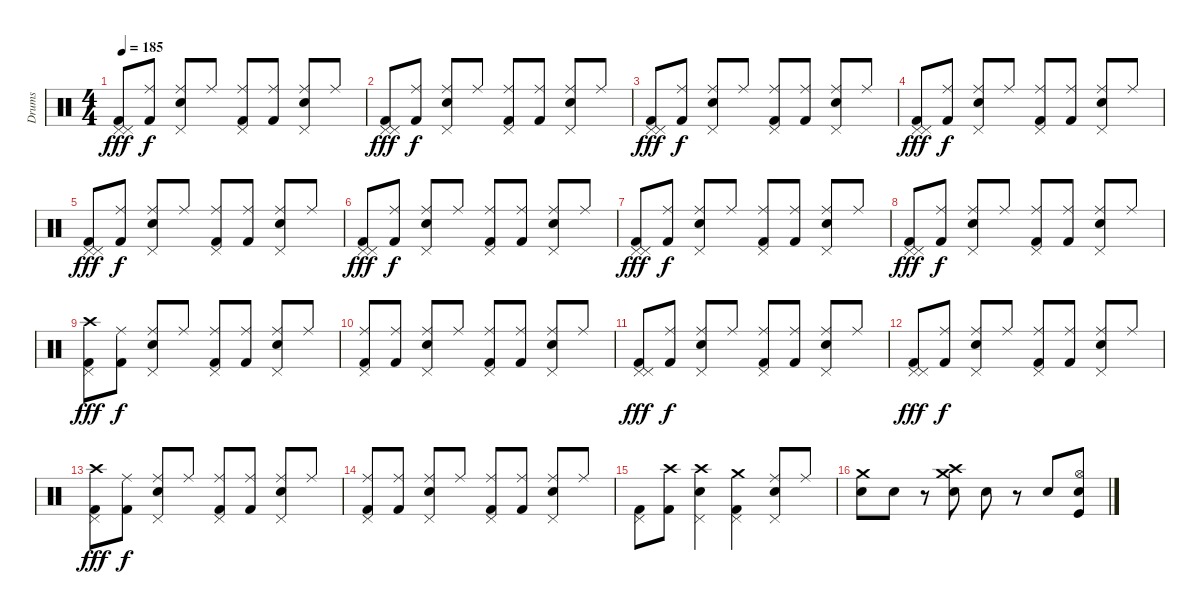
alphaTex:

\track ("Drums" "Drums") {instrument percussion}
\staff {score}
\articulation defaults
\ts (4 4)
\tempo 185
\clef neutral
\ks c
("Pedal Hi-Hat (hit)" "Pedal Hi-Hat (hit)" "Kick (hit) 2").8{dy fff} ("Ride (middle)" "Kick (hit) 2").8{dy f} ("Pedal Hi-Hat (hit)" "Ride (middle)" "Snare (hit) 2").8 "Ride (middle)".8 ("Pedal Hi-Hat (hit)" "Ride (middle)" "Kick (hit) 2").8 ("Ride (middle)" "Kick (hit) 2").8 ("Pedal Hi-Hat (hit)" "Ride (middle)" "Snare (hit) 2").8 "Ride (middle)".8 |
("Pedal Hi-Hat (hit)" "Pedal Hi-Hat (hit)" "Kick (hit) 2").8{dy fff} ("Ride (middle)" "Kick (hit) 2").8{dy f} ("Pedal Hi-Hat (hit)" "Ride (middle)" "Snare (hit) 2").8 "Ride (middle)".8 ("Pedal Hi-Hat (hit)" "Ride (middle)" "Kick (hit) 2").8 ("Ride (middle)" "Kick (hit) 2").8 ("Pedal Hi-Hat (hit)" "Ride (middle)" "Snare (hit) 2").8 "Ride (middle)".8 |
("Pedal Hi-Hat (hit)" "Pedal Hi-Hat (hit)" "Kick (hit) 2").8{dy fff} ("Ride (middle)" "Kick (hit) 2").8{dy f} ("Pedal Hi-Hat (hit)" "Ride (middle)" "Snare (hit) 2").8 "Ride (middle)".8 ("Pedal Hi-Hat (hit)" "Ride (middle)" "Kick (hit) 2").8 ("Ride (middle)" "Kick (hit) 2").8 ("Pedal Hi-Hat (hit)" "Ride (middle)" "Snare (hit) 2").8 "Ride (middle)".8 |
("Pedal Hi-Hat (hit)" "Pedal Hi-Hat (hit)" "Kick (hit) 2").8{dy fff} ("Ride (middle)" "Kick (hit) 2").8{dy f} ("Pedal Hi-Hat (hit)" "Ride (middle)" "Snare (hit) 2").8 "Ride (middle)".8 ("Pedal Hi-Hat (hit)" "Ride (middle)" "Kick (hit) 2").8 ("Ride (middle)" "Kick (hit) 2").8 ("Pedal Hi-Hat (hit)" "Ride (middle)" "Snare (hit) 2").8 "Ride (middle)".8 |
("Pedal Hi-Hat (hit)" "Pedal Hi-Hat (hit)" "Kick (hit) 2").8{dy fff} ("Ride (middle)" "Kick (hit) 2").8{dy f} ("Pedal Hi-Hat (hit)" "Ride (middle)" "Snare (hit) 2").8 "Ride (middle)".8 ("Pedal Hi-Hat (hit)" "Ride (middle)" "Kick (hit) 2").8 ("Ride (middle)" "Kick (hit) 2").8 ("Pedal Hi-Hat (hit)" "Ride (middle)" "Snare (hit) 2").8 "Ride (middle)".8 |
("Pedal Hi-Hat (hit)" "Pedal Hi-Hat (hit)" "Kick (hit) 2").8{dy fff} ("Ride (middle)" "Kick (hit) 2").8{dy f} ("Pedal Hi-Hat (hit)" "Ride (middle)" "Snare (hit) 2").8 "Ride (middle)".8 ("Pedal Hi-Hat (hit)" "Ride (middle)" "Kick (hit) 2").8 ("Ride (middle)" "Kick (hit) 2").8 ("Pedal Hi-Hat (hit)" "Ride (middle)" "Snare (hit) 2").8 "Ride (middle)".8 |
("Pedal Hi-Hat (hit)" "Pedal Hi-Hat (hit)" "Kick (hit) 2").8{dy fff} ("Ride (middle)" "Kick (hit) 2").8{dy f} ("Pedal Hi-Hat (hit)" "Ride (middle)" "Snare (hit) 2").8 "Ride (middle)".8 ("Pedal Hi-Hat (hit)" "Ride (middle)" "Kick (hit) 2").8 ("Ride (middle)" "Kick (hit) 2").8 ("Pedal Hi-Hat (hit)" "Ride (middle)" "Snare (hit) 2").8 "Ride (middle)".8 |
("Pedal Hi-Hat (hit)" "Pedal Hi-Hat (hit)" "Kick (hit) 2").8{dy fff} ("Ride (middle)" "Kick (hit) 2").8{dy f} ("Pedal Hi-Hat (hit)" "Ride (middle)" "Snare (hit) 2").8 "Ride (middle)".8 ("Pedal Hi-Hat (hit)" "Ride (middle)" "Kick (hit) 2").8 ("Ride (middle)" "Kick (hit) 2").8 ("Pedal Hi-Hat (hit)" "Ride (middle)" "Snare (hit) 2").8 "Ride (middle)".8 |
("Crash high (hit)" "Pedal Hi-Hat (hit)" "Kick (hit) 2").8{dy fff} ("Ride (middle)" "Kick (hit) 2").8{dy f} ("Pedal Hi-Hat (hit)" "Ride (middle)" "Snare (hit) 2").8 "Ride (middle)".8 ("Pedal Hi-Hat (hit)" "Ride (middle)" "Kick (hit) 2").8 ("Ride (middle)" "Kick (hit) 2").8 ("Pedal Hi-Hat (hit)" "Ride (middle)" "Snare (hit) 2").8 "Ride (middle)".8 |
("Pedal Hi-Hat (hit)" "Ride (middle)" "Kick (hit) 2").8 ("Ride (middle)" "Kick (hit) 2").8 ("Pedal Hi-Hat (hit)" "Ride (middle)" "Snare (hit) 2").8 "Ride (middle)".8 ("Pedal Hi-Hat (hit)" "Ride (middle)" "Kick (hit) 2").8 ("Ride (middle)" "Kick (hit) 2").8 ("Pedal Hi-Hat (hit)" "Ride (middle)" "Snare (hit) 2").8 "Ride (middle)".8 |
("Pedal Hi-Hat (hit)" "Pedal Hi-Hat (hit)" "Kick (hit) 2").8{dy fff} ("Ride (middle)" "Kick (hit) 2").8{dy f} ("Pedal Hi-Hat (hit)" "Ride (middle)" "Snare (hit) 2").8 "Ride (middle)".8 ("Pedal Hi-Hat (hit)" "Ride (middle)" "Kick (hit) 2").8 ("Ride (middle)" "Kick (hit) 2").8 ("Pedal Hi-Hat (hit)" "Ride (middle)" "Snare (hit) 2").8 "Ride (middle)".8 |
("Pedal Hi-Hat (hit)" "Pedal Hi-Hat (hit)" "Kick (hit) 2").8{dy fff} ("Ride (middle)" "Kick (hit) 2").8{dy f} ("Pedal Hi-Hat (hit)" "Ride (middle)" "Snare (hit) 2").8 "Ride (middle)".8 ("Pedal Hi-Hat (hit)" "Ride (middle)" "Kick (hit) 2").8 ("Ride (middle)" "Kick (hit) 2").8 ("Pedal Hi-Hat (hit)" "Ride (middle)" "Snare (hit) 2").8 "Ride (middle)".8 |
("Crash high (hit)" "Pedal Hi-Hat (hit)" "Kick (hit) 2").8{dy fff} ("Ride (middle)" "Kick (hit) 2").8{dy f} ("Pedal Hi-Hat (hit)" "Ride (middle)" "Snare (hit) 2").8 "Ride (middle)".8 ("Pedal Hi-Hat (hit)" "Ride (middle)" "Kick (hit) 2").8 ("Ride (middle)" "Kick (hit) 2").8 ("Pedal Hi-Hat (hit)" "Ride (middle)" "Snare (hit) 2").8 "Ride (middle)".8 |
("Pedal Hi-Hat (hit)" "Ride (middle)" "Kick (hit) 2").8 ("Ride (middle)" "Kick (hit) 2").8 ("Pedal Hi-Hat (hit)" "Ride (middle)" "Snare (hit) 2").8 "Ride (middle)".8 ("Pedal Hi-Hat (hit)" "Ride (middle)" "Kick (hit) 2").8 ("Ride (middle)" "Kick (hit) 2").8 ("Pedal Hi-Hat (hit)" "Ride (middle)" "Snare (hit) 2").8 "Ride (middle)".8 |
("Pedal Hi-Hat (hit)" "Kick (hit) 2").8 ("Crash high (hit)" "Kick (hit) 2").8 ("Pedal Hi-Hat (hit)" "Crash high (hit)" "Snare (hit) 2").4 ("Pedal Hi-Hat (hit)" "Crash medium (hit)" "Kick (hit) 2").4 ("Pedal Hi-Hat (hit)" "Ride (middle)" "Snare (hit) 2").8 "Ride (middle)".8 |
("Electric Snare (hit)" "Crash medium (hit)").8 "Electric Snare (hit)".8 r.8 ("Crash high (hit)" "Crash medium (hit)" "Electric Snare (hit)").8 "Electric Snare (hit)".8 r.8 "Electric Snare (hit)".8 ("Hi-Hat (open)" "Kick (hit)" "Electric Snare (hit)").8
